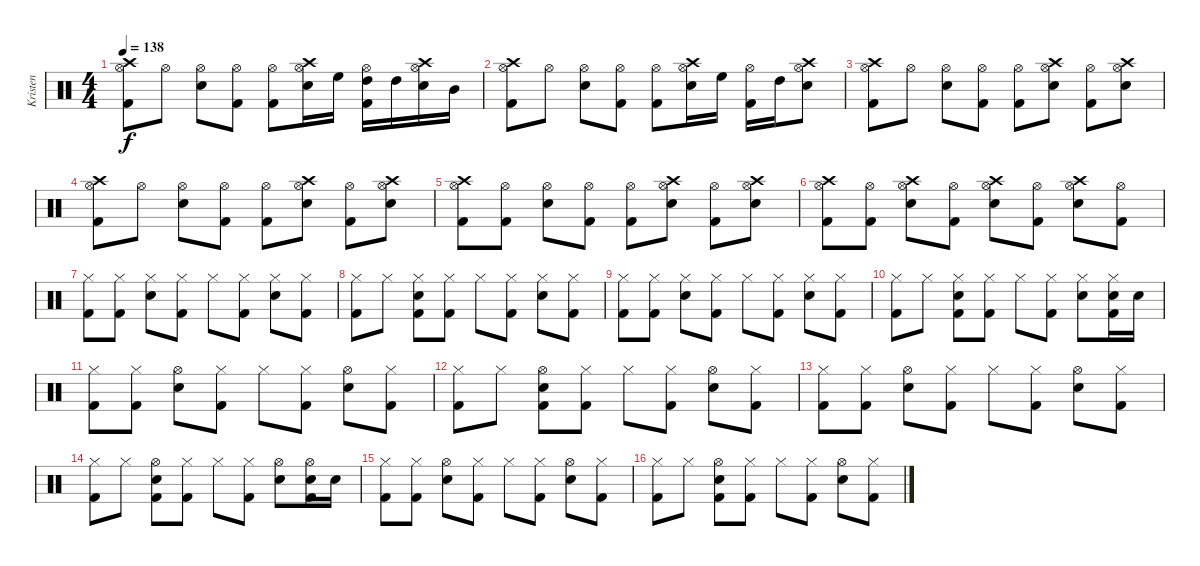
\track ("Kristen" "Kristen") {instrument percussion}
\staff {score}
\articulation defaults
\ts (4 4)
\tempo 138
\clef neutral
\ks c
("Crash high (hit)" "Hi-Hat (open)" "Kick (hit) 2").8{dy f} "Hi-Hat (open)".8 ("Hi-Hat (open)" "Snare (hit) 2").8 ("Hi-Hat (open)" "Kick (hit) 2").8 ("Hi-Hat (open)" "Kick (hit) 2").8 ("Crash high (hit)" "Hi-Hat (open)" "Snare (hit) 2").16 "High Floor Tom (hit)".16 ("High Tom (hit)" "Hi-Hat (open)" "Kick (hit) 2").16 "High Tom (hit)".16 ("Crash high (hit)" "Hi-Hat (open)" "Snare (hit) 2").16 "Mid Tom (hit)".16 |
("Crash high (hit)" "Hi-Hat (open)" "Kick (hit) 2").8 "Hi-Hat (open)".8 ("Hi-Hat (open)" "Snare (hit) 2").8 ("Hi-Hat (open)" "Kick (hit) 2").8 ("Hi-Hat (open)" "Kick (hit) 2").8 ("Crash high (hit)" "Hi-Hat (open)" "Snare (hit) 2").16 "High Floor Tom (hit)".16 ("Hi-Hat (open)" "Kick (hit) 2").16 "High Tom (hit)".16 ("Crash high (hit)" "Hi-Hat (open)" "Snare (hit) 2").8 |
("Crash high (hit)" "Hi-Hat (open)" "Kick (hit) 2").8 "Hi-Hat (open)".8 ("Hi-Hat (open)" "Snare (hit) 2").8 ("Hi-Hat (open)" "Kick (hit) 2").8 ("Hi-Hat (open)" "Kick (hit) 2").8 ("Crash high (hit)" "Hi-Hat (open)" "Snare (hit) 2").8 ("Hi-Hat (open)" "Kick (hit) 2").8 ("Crash high (hit)" "Hi-Hat (open)" "Snare (hit) 2").8 |
("Crash high (hit)" "Hi-Hat (open)" "Kick (hit) 2").8 "Hi-Hat (open)".8 ("Hi-Hat (open)" "Snare (hit) 2").8 ("Hi-Hat (open)" "Kick (hit) 2").8 ("Hi-Hat (open)" "Kick (hit) 2").8 ("Crash high (hit)" "Hi-Hat (open)" "Snare (hit) 2").8 ("Hi-Hat (open)" "Kick (hit) 2").8 ("Crash high (hit)" "Hi-Hat (open)" "Snare (hit) 2").8 |
("Crash high (hit)" "Hi-Hat (open)" "Kick (hit) 2").8 ("Hi-Hat (open)" "Kick (hit) 2").8 ("Hi-Hat (open)" "Snare (hit) 2").8 ("Hi-Hat (open)" "Kick (hit) 2").8 ("Hi-Hat (open)" "Kick (hit) 2").8 ("Crash high (hit)" "Hi-Hat (open)" "Snare (hit) 2").8 ("Hi-Hat (open)" "Kick (hit) 2").8 ("Crash high (hit)" "Hi-Hat (open)" "Snare (hit) 2").8 |
("Crash high (hit)" "Hi-Hat (open)" "Kick (hit) 2").8 ("Hi-Hat (open)" "Kick (hit) 2").8 ("Crash high (hit)" "Hi-Hat (open)" "Snare (hit) 2").8 ("Hi-Hat (open)" "Kick (hit) 2").8 ("Crash high (hit)" "Hi-Hat (open)" "Snare (hit) 2").8 ("Hi-Hat (open)" "Kick (hit) 2").8 ("Crash high (hit)" "Hi-Hat (open)" "Snare (hit) 2").8 ("Hi-Hat (open)" "Kick (hit) 2").8 |
("Hi-Hat (closed)" "Kick (hit) 2").8 ("Hi-Hat (closed)" "Kick (hit) 2").8 ("Hi-Hat (closed)" "Snare (hit) 2").8 ("Hi-Hat (closed)" "Kick (hit) 2").8 "Hi-Hat (closed)".8 ("Hi-Hat (closed)" "Kick (hit) 2").8 ("Hi-Hat (closed)" "Snare (hit) 2").8 ("Hi-Hat (closed)" "Kick (hit) 2").8 |
("Hi-Hat (closed)" "Kick (hit) 2").8 "Hi-Hat (closed)".8 ("Hi-Hat (closed)" "Snare (hit) 2" "Kick (hit) 2").8 ("Hi-Hat (closed)" "Kick (hit) 2").8 "Hi-Hat (closed)".8 ("Hi-Hat (closed)" "Kick (hit) 2").8 ("Hi-Hat (closed)" "Snare (hit) 2").8 ("Hi-Hat (closed)" "Kick (hit) 2").8 |
("Hi-Hat (closed)" "Kick (hit) 2").8 ("Hi-Hat (closed)" "Kick (hit) 2").8 ("Hi-Hat (closed)" "Snare (hit) 2").8 ("Hi-Hat (closed)" "Kick (hit) 2").8 "Hi-Hat (closed)".8 ("Hi-Hat (closed)" "Kick (hit) 2").8 ("Hi-Hat (closed)" "Snare (hit) 2").8 ("Hi-Hat (closed)" "Kick (hit) 2").8 |
("Hi-Hat (closed)" "Kick (hit) 2").8 "Hi-Hat (closed)".8 ("Hi-Hat (closed)" "Snare (hit) 2" "Kick (hit) 2").8 ("Hi-Hat (closed)" "Kick (hit) 2").8 "Hi-Hat (closed)".8 ("Hi-Hat (closed)" "Kick (hit) 2").8 ("Hi-Hat (closed)" "Snare (hit) 2").8 ("Hi-Hat (closed)" "Snare (hit) 2" "Kick (hit) 2").16 "Snare (hit) 2".16 |
("Hi-Hat (closed)" "Kick (hit) 2").8 ("Hi-Hat (closed)" "Kick (hit) 2").8 ("Hi-Hat (open)" "Snare (hit) 2").8 ("Hi-Hat (closed)" "Kick (hit) 2").8 "Hi-Hat (closed)".8 ("Hi-Hat (closed)" "Kick (hit) 2").8 ("Hi-Hat (open)" "Snare (hit) 2").8 ("Hi-Hat (closed)" "Kick (hit) 2").8 |
("Hi-Hat (closed)" "Kick (hit) 2").8 "Hi-Hat (closed)".8 ("Hi-Hat (open)" "Snare (hit) 2" "Kick (hit) 2").8 ("Hi-Hat (closed)" "Kick (hit) 2").8 "Hi-Hat (closed)".8 ("Hi-Hat (closed)" "Kick (hit) 2").8 ("Hi-Hat (open)" "Snare (hit) 2").8 ("Hi-Hat (closed)" "Kick (hit) 2").8 |
("Hi-Hat (closed)" "Kick (hit) 2").8 ("Hi-Hat (closed)" "Kick (hit) 2").8 ("Hi-Hat (open)" "Snare (hit) 2").8 ("Hi-Hat (closed)" "Kick (hit) 2").8 "Hi-Hat (closed)".8 ("Hi-Hat (closed)" "Kick (hit) 2").8 ("Hi-Hat (open)" "Snare (hit) 2").8 ("Hi-Hat (closed)" "Kick (hit) 2").8 |
("Hi-Hat (closed)" "Kick (hit) 2").8 "Hi-Hat (closed)".8 ("Hi-Hat (open)" "Snare (hit) 2" "Kick (hit) 2").8 ("Hi-Hat (closed)" "Kick (hit) 2").8 "Hi-Hat (closed)".8 ("Hi-Hat (closed)" "Kick (hit) 2").8 ("Hi-Hat (open)" "Snare (hit) 2").8 ("Hi-Hat (open)" "Snare (hit) 2" "Kick (hit) 2").16 "Snare (hit) 2".16 |
("Hi-Hat (closed)" "Kick (hit) 2").8 ("Hi-Hat (closed)" "Kick (hit) 2").8 ("Hi-Hat (open)" "Snare (hit) 2").8 ("Hi-Hat (closed)" "Kick (hit) 2").8 "Hi-Hat (closed)".8 ("Hi-Hat (closed)" "Kick (hit) 2").8 ("Hi-Hat (open)" "Snare (hit) 2").8 ("Hi-Hat (closed)" "Kick (hit) 2").8 |
("Hi-Hat (closed)" "Kick (hit) 2").8 "Hi-Hat (closed)".8 ("Hi-Hat (open)" "Snare (hit) 2" "Kick (hit) 2").8 ("Hi-Hat (closed)" "Kick (hit) 2").8 "Hi-Hat (closed)".8 ("Hi-Hat (closed)" "Kick (hit) 2").8 ("Hi-Hat (open)" "Snare (hit) 2").8 ("Hi-Hat (closed)" "Kick (hit) 2").8
